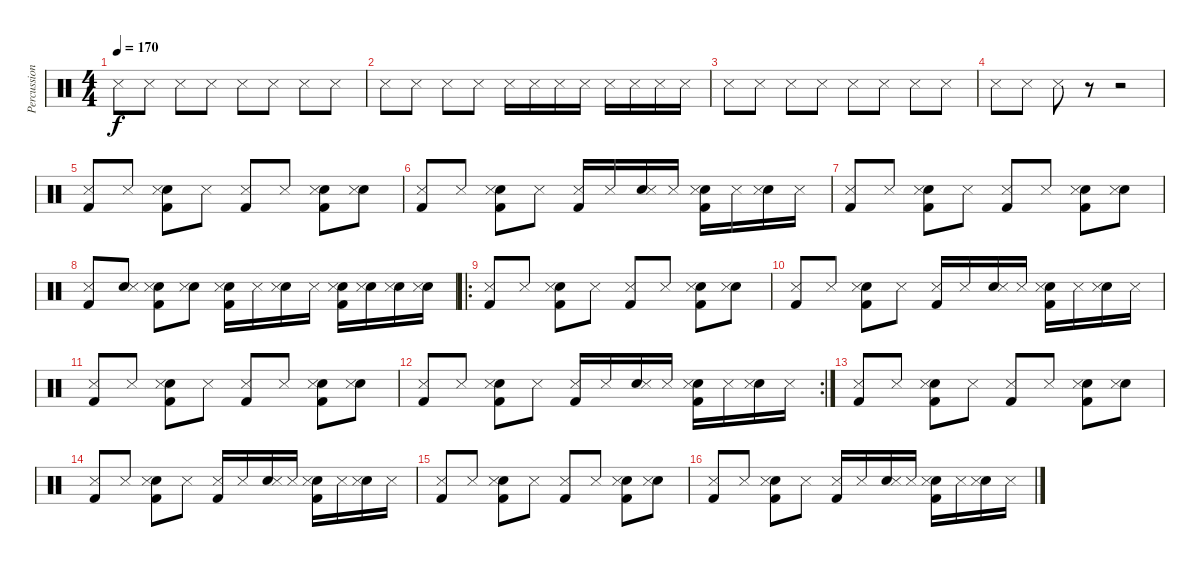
\track ("Percussion" "Percussion") {instrument percussion}
\staff {score}
\articulation defaults
\ts (4 4)
\tempo 170
\clef neutral
\ks c "Snare (side stick) 3".8{dy f} "Snare (side stick) 3".8 "Snare (side stick) 3".8 "Snare (side stick) 3".8 "Snare (side stick) 3".8 "Snare (side stick) 3".8 "Snare (side stick) 3".8 "Snare (side stick) 3".8
|
"Snare (side stick) 3".8 "Snare (side stick) 3".8 "Snare (side stick) 3".8 "Snare (side stick) 3".8 "Snare (side stick) 3".16 "Snare (side stick) 3".16 "Snare (side stick) 3".16 "Snare (side stick) 3".16 "Snare (side stick) 3".16 "Snare (side stick) 3".16 "Snare (side stick) 3".16 "Snare (side stick) 3".16 |
"Snare (side stick) 3".8 "Snare (side stick) 3".8 "Snare (side stick) 3".8 "Snare (side stick) 3".8 "Snare (side stick) 3".8 "Snare (side stick) 3".8 "Snare (side stick) 3".8 "Snare (side stick) 3".8 |
"Snare (side stick) 3".8 "Snare (side stick) 3".8 "Snare (side stick) 3".8 r.8 r.2 |
("Snare (side stick) 3" "Kick (hit) 2").8 "Snare (side stick) 3".8 ("Electric Snare (hit)" "Snare (side stick) 3" "Kick (hit) 2").8 "Snare (side stick) 3".8 ("Snare (side stick) 3" "Kick (hit) 2").8 "Snare (side stick) 3".8 ("Electric Snare (hit)" "Snare (side stick) 3" "Kick (hit) 2").8 ("Electric Snare (hit)" "Snare (side stick) 3").8 |
("Snare (side stick) 3" "Kick (hit) 2").8 "Snare (side stick) 3".8 ("Electric Snare (hit)" "Snare (side stick) 3" "Kick (hit) 2").8 "Snare (side stick) 3".8 ("Snare (side stick) 3" "Kick (hit) 2").16 "Snare (side stick) 3".16 ("Electric Snare (hit)" "Snare (side stick) 3").16 "Snare (side stick) 3".16 ("Electric Snare (hit)" "Snare (side stick) 3" "Kick (hit) 2").16 "Snare (side stick) 3".16 ("Electric Snare (hit)" "Snare (side stick) 3").16 "Snare (side stick) 3".16 |
("Snare (side stick) 3" "Kick (hit) 2").8 "Snare (side stick) 3".8 ("Electric Snare (hit)" "Snare (side stick) 3" "Kick (hit) 2").8 "Snare (side stick) 3".8 ("Snare (side stick) 3" "Kick (hit) 2").8 "Snare (side stick) 3".8 ("Electric Snare (hit)" "Snare (side stick) 3" "Kick (hit) 2").8 ("Electric Snare (hit)" "Snare (side stick) 3").8 |
("Snare (side stick) 3" "Kick (hit) 2").8 ("Electric Snare (hit)" "Snare (side stick) 3").8 ("Electric Snare (hit)" "Snare (side stick) 3" "Kick (hit) 2").8 ("Electric Snare (hit)" "Snare (side stick) 3").8 ("Electric Snare (hit)" "Snare (side stick) 3" "Kick (hit) 2").16 "Snare (side stick) 3".16 ("Electric Snare (hit)" "Snare (side stick) 3").16 "Snare (side stick) 3".16 ("Electric Snare (hit)" "Snare (side stick) 3" "Kick (hit) 2").16 ("Electric Snare (hit)" "Snare (side stick) 3").16 ("Electric Snare (hit)" "Snare (side stick) 3").16 ("Electric Snare (hit)" "Snare (side stick) 3").16 |
\ro
("Snare (side stick) 3" "Kick (hit) 2").8 "Snare (side stick) 3".8 ("Electric Snare (hit)" "Snare (side stick) 3" "Kick (hit) 2").8 "Snare (side stick) 3".8 ("Snare (side stick) 3" "Kick (hit) 2").8 "Snare (side stick) 3".8 ("Electric Snare (hit)" "Snare (side stick) 3" "Kick (hit) 2").8 ("Electric Snare (hit)" "Snare (side stick) 3").8 |
("Snare (side stick) 3" "Kick (hit) 2").8 "Snare (side stick) 3".8 ("Electric Snare (hit)" "Snare (side stick) 3" "Kick (hit) 2").8 "Snare (side stick) 3".8 ("Snare (side stick) 3" "Kick (hit) 2").16 "Snare (side stick) 3".16 ("Electric Snare (hit)" "Snare (side stick) 3").16 "Snare (side stick) 3".16 ("Electric Snare (hit)" "Snare (side stick) 3" "Kick (hit) 2").16 "Snare (side stick) 3".16 ("Electric Snare (hit)" "Snare (side stick) 3").16 "Snare (side stick) 3".16 |
("Snare (side stick) 3" "Kick (hit) 2").8 "Snare (side stick) 3".8 ("Electric Snare (hit)" "Snare (side stick) 3" "Kick (hit) 2").8 "Snare (side stick) 3".8 ("Snare (side stick) 3" "Kick (hit) 2").8 "Snare (side stick) 3".8 ("Electric Snare (hit)" "Snare (side stick) 3" "Kick (hit) 2").8 ("Electric Snare (hit)" "Snare (side stick) 3").8 |
\rc 2
("Snare (side stick) 3" "Kick (hit) 2").8 "Snare (side stick) 3".8 ("Electric Snare (hit)" "Snare (side stick) 3" "Kick (hit) 2").8 "Snare (side stick) 3".8 ("Snare (side stick) 3" "Kick (hit) 2").16 "Snare (side stick) 3".16 ("Electric Snare (hit)" "Snare (side stick) 3").16 "Snare (side stick) 3".16 ("Electric Snare (hit)" "Snare (side stick) 3" "Kick (hit) 2").16 "Snare (side stick) 3".16 ("Electric Snare (hit)" "Snare (side stick) 3").16 "Snare (side stick) 3".16 |
("Snare (side stick) 3" "Kick (hit) 2").8 "Snare (side stick) 3".8 ("Electric Snare (hit)" "Snare (side stick) 3" "Kick (hit) 2").8 "Snare (side stick) 3".8 ("Snare (side stick) 3" "Kick (hit) 2").8 "Snare (side stick) 3".8 ("Electric Snare (hit)" "Snare (side stick) 3" "Kick (hit) 2").8 ("Electric Snare (hit)" "Snare (side stick) 3").8 |
("Snare (side stick) 3" "Kick (hit) 2").8 "Snare (side stick) 3".8 ("Electric Snare (hit)" "Snare (side stick) 3" "Kick (hit) 2").8 "Snare (side stick) 3".8 ("Snare (side stick) 3" "Kick (hit) 2").16 "Snare (side stick) 3".16 ("Electric Snare (hit)" "Snare (side stick) 3").16 "Snare (side stick) 3".16 ("Electric Snare (hit)" "Snare (side stick) 3" "Kick (hit) 2").16 "Snare (side stick) 3".16 ("Electric Snare (hit)" "Snare (side stick) 3").16 "Snare (side stick) 3".16 |
("Snare (side stick) 3" "Kick (hit) 2").8 "Snare (side stick) 3".8 ("Electric Snare (hit)" "Snare (side stick) 3" "Kick (hit) 2").8 "Snare (side stick) 3".8 ("Snare (side stick) 3" "Kick (hit) 2").8 "Snare (side stick) 3".8 ("Electric Snare (hit)" "Snare (side stick) 3" "Kick (hit) 2").8 ("Electric Snare (hit)" "Snare (side stick) 3").8 |
("Snare (side stick) 3" "Kick (hit) 2").8 "Snare (side stick) 3".8 ("Electric Snare (hit)" "Snare (side stick) 3" "Kick (hit) 2").8 "Snare (side stick) 3".8 ("Snare (side stick) 3" "Kick (hit) 2").16 "Snare (side stick) 3".16 ("Electric Snare (hit)" "Snare (side stick) 3").16 "Snare (side stick) 3".16 ("Electric Snare (hit)" "Snare (side stick) 3" "Kick (hit) 2").16 "Snare (side stick) 3".16 ("Electric Snare (hit)" "Snare (side stick) 3").16 "Snare (side stick) 3".16
